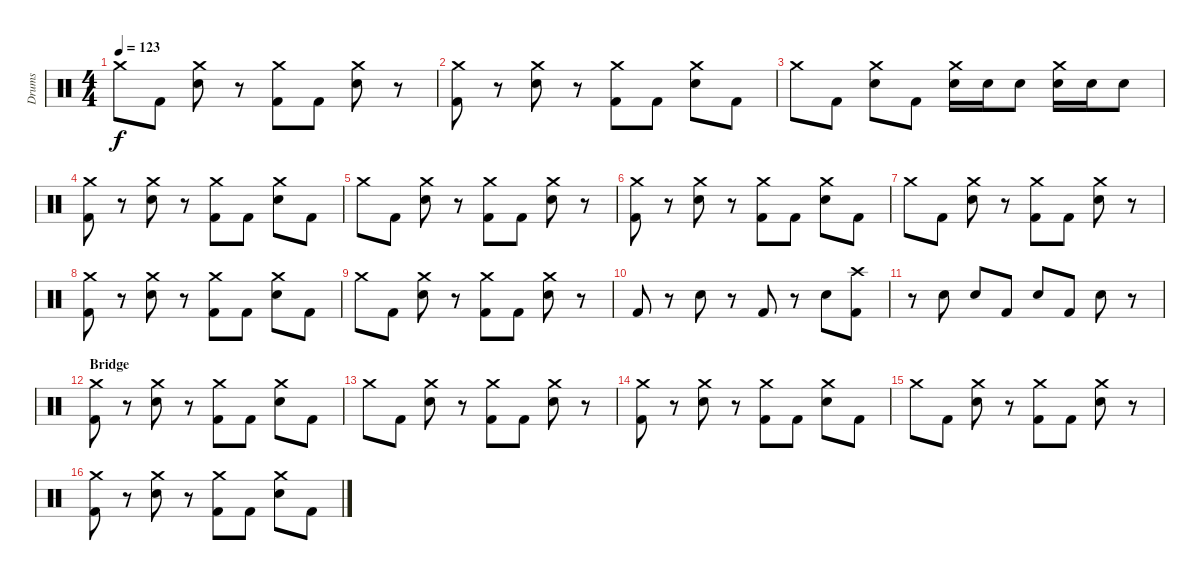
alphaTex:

\track ("Drums" "Drums") {instrument percussion}
\staff {score}
\articulation defaults
\ts (4 4)
\tempo 123
\clef neutral
\ks c "Crash medium (hit)".8{dy f} "Kick (hit) 2".8
("Crash medium (hit)" "Electric Snare (hit)").8 r.8 ("Crash medium (hit)" "Kick (hit) 2").8 "Kick (hit) 2".8 ("Crash medium (hit)" "Electric Snare (hit)").8 r.8 |
("Crash medium (hit)" "Kick (hit) 2").8 r.8 ("Crash medium (hit)" "Electric Snare (hit)").8 r.8 ("Crash medium (hit)" "Kick (hit) 2").8 "Kick (hit) 2".8 ("Crash medium (hit)" "Electric Snare (hit)").8 "Kick (hit) 2".8 |
"Crash medium (hit)".8 "Kick (hit) 2".8 ("Crash medium (hit)" "Electric Snare (hit)").8 "Kick (hit) 2".8 ("Crash medium (hit)" "Electric Snare (hit)").16 "Electric Snare (hit)".16 "Electric Snare (hit)".8 ("Crash medium (hit)" "Electric Snare (hit)").16 "Electric Snare (hit)".16 "Electric Snare (hit)".8 |
("Crash medium (hit)" "Kick (hit) 2").8 r.8 ("Crash medium (hit)" "Electric Snare (hit)").8 r.8 ("Crash medium (hit)" "Kick (hit) 2").8 "Kick (hit) 2".8 ("Crash medium (hit)" "Electric Snare (hit)").8 "Kick (hit) 2".8 |
"Crash medium (hit)".8 "Kick (hit) 2".8 ("Crash medium (hit)" "Electric Snare (hit)").8 r.8 ("Crash medium (hit)" "Kick (hit) 2").8 "Kick (hit) 2".8 ("Crash medium (hit)" "Electric Snare (hit)").8 r.8 |
("Crash medium (hit)" "Kick (hit) 2").8 r.8 ("Crash medium (hit)" "Electric Snare (hit)").8 r.8 ("Crash medium (hit)" "Kick (hit) 2").8 "Kick (hit) 2".8 ("Crash medium (hit)" "Electric Snare (hit)").8 "Kick (hit) 2".8 |
"Crash medium (hit)".8 "Kick (hit) 2".8 ("Crash medium (hit)" "Electric Snare (hit)").8 r.8 ("Crash medium (hit)" "Kick (hit) 2").8 "Kick (hit) 2".8 ("Crash medium (hit)" "Electric Snare (hit)").8 r.8 |
("Crash medium (hit)" "Kick (hit) 2").8 r.8 ("Crash medium (hit)" "Electric Snare (hit)").8 r.8 ("Crash medium (hit)" "Kick (hit) 2").8 "Kick (hit) 2".8 ("Crash medium (hit)" "Electric Snare (hit)").8 "Kick (hit) 2".8 |
"Crash medium (hit)".8 "Kick (hit) 2".8 ("Crash medium (hit)" "Electric Snare (hit)").8 r.8 ("Crash medium (hit)" "Kick (hit) 2").8 "Kick (hit) 2".8 ("Crash medium (hit)" "Electric Snare (hit)").8 r.8 |
"Kick (hit) 2".8 r.8 "Electric Snare (hit)".8 r.8 "Kick (hit) 2".8 r.8 "Electric Snare (hit)".8 ("Crash high (hit)" "Kick (hit) 2").8 |
r.8 "Electric Snare (hit)".8 "Electric Snare (hit)".8 "Kick (hit) 2".8 "Electric Snare (hit)".8 "Kick (hit) 2".8 "Electric Snare (hit)".8 r.8 |
\section ("" "Bridge")
("Crash medium (hit)" "Kick (hit) 2").8 r.8 ("Crash medium (hit)" "Electric Snare (hit)").8 r.8 ("Crash medium (hit)" "Kick (hit) 2").8 "Kick (hit) 2".8 ("Crash medium (hit)" "Electric Snare (hit)").8 "Kick (hit) 2".8 |
"Crash medium (hit)".8 "Kick (hit) 2".8 ("Crash medium (hit)" "Electric Snare (hit)").8 r.8 ("Crash medium (hit)" "Kick (hit) 2").8 "Kick (hit) 2".8 ("Crash medium (hit)" "Electric Snare (hit)").8 r.8 |
("Crash medium (hit)" "Kick (hit) 2").8 r.8 ("Crash medium (hit)" "Electric Snare (hit)").8 r.8 ("Crash medium (hit)" "Kick (hit) 2").8 "Kick (hit) 2".8 ("Crash medium (hit)" "Electric Snare (hit)").8 "Kick (hit) 2".8 |
"Crash medium (hit)".8 "Kick (hit) 2".8 ("Crash medium (hit)" "Electric Snare (hit)").8 r.8 ("Crash medium (hit)" "Kick (hit) 2").8 "Kick (hit) 2".8 ("Crash medium (hit)" "Electric Snare (hit)").8 r.8 |
("Crash medium (hit)" "Kick (hit) 2").8 r.8 ("Crash medium (hit)" "Electric Snare (hit)").8 r.8 ("Crash medium (hit)" "Kick (hit) 2").8 "Kick (hit) 2".8 ("Crash medium (hit)" "Electric Snare (hit)").8 "Kick (hit) 2".8
